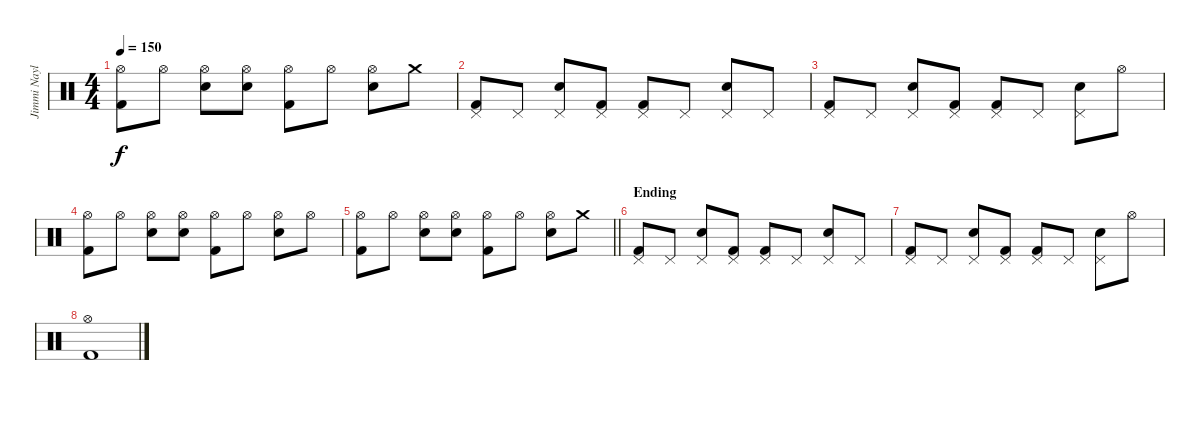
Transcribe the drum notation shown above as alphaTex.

\track ("Jimmi Naylor" "Jimmi Nayl") {instrument percussion}
\staff {score}
\articulation defaults
\ts (4 4)
\tempo 150
\clef neutral
\ks c
("Kick (hit) 2" "Hi-Hat (open)").8{dy f} "Hi-Hat (open)".8 ("Snare (hit) 2" "Hi-Hat (open)").8 ("Snare (hit) 2" "Hi-Hat (open)").8 ("Kick (hit) 2" "Hi-Hat (open)").8 "Hi-Hat (open)".8 ("Snare (hit) 2" "Hi-Hat (open)").8 "Crash medium (hit)".8 |
("Kick (hit) 2" "Pedal Hi-Hat (hit)").8 "Pedal Hi-Hat (hit)".8 ("Electric Snare (hit)" "Pedal Hi-Hat (hit)").8 ("Kick (hit) 2" "Pedal Hi-Hat (hit)").8 ("Kick (hit) 2" "Pedal Hi-Hat (hit)").8 "Pedal Hi-Hat (hit)".8 ("Electric Snare (hit)" "Pedal Hi-Hat (hit)").8 "Pedal Hi-Hat (hit)".8 |
("Kick (hit) 2" "Pedal Hi-Hat (hit)").8 "Pedal Hi-Hat (hit)".8 ("Electric Snare (hit)" "Pedal Hi-Hat (hit)").8 ("Kick (hit) 2" "Pedal Hi-Hat (hit)").8 ("Kick (hit) 2" "Pedal Hi-Hat (hit)").8 "Pedal Hi-Hat (hit)".8 ("Electric Snare (hit)" "Pedal Hi-Hat (hit)").8 "Hi-Hat (open)".8 |
("Kick (hit) 2" "Hi-Hat (open)").8 "Hi-Hat (open)".8 ("Snare (hit) 2" "Hi-Hat (open)").8 ("Snare (hit) 2" "Hi-Hat (open)").8 ("Kick (hit) 2" "Hi-Hat (open)").8 "Hi-Hat (open)".8 ("Snare (hit) 2" "Hi-Hat (open)").8 "Hi-Hat (open)".8 |
\barLineRight lightlight
("Kick (hit) 2" "Hi-Hat (open)").8 "Hi-Hat (open)".8 ("Snare (hit) 2" "Hi-Hat (open)").8 ("Snare (hit) 2" "Hi-Hat (open)").8 ("Kick (hit) 2" "Hi-Hat (open)").8 "Hi-Hat (open)".8 ("Snare (hit) 2" "Hi-Hat (open)").8 "Crash medium (hit)".8 |
\section ("" "Ending")
("Kick (hit) 2" "Pedal Hi-Hat (hit)").8 "Pedal Hi-Hat (hit)".8 ("Electric Snare (hit)" "Pedal Hi-Hat (hit)").8 ("Kick (hit) 2" "Pedal Hi-Hat (hit)").8 ("Kick (hit) 2" "Pedal Hi-Hat (hit)").8 "Pedal Hi-Hat (hit)".8 ("Electric Snare (hit)" "Pedal Hi-Hat (hit)").8 "Pedal Hi-Hat (hit)".8 |
("Kick (hit) 2" "Pedal Hi-Hat (hit)").8 "Pedal Hi-Hat (hit)".8 ("Electric Snare (hit)" "Pedal Hi-Hat (hit)").8 ("Kick (hit) 2" "Pedal Hi-Hat (hit)").8 ("Kick (hit) 2" "Pedal Hi-Hat (hit)").8 "Pedal Hi-Hat (hit)".8 ("Electric Snare (hit)" "Pedal Hi-Hat (hit)").8 "Hi-Hat (open)".8 |
("Kick (hit) 2" "Hi-Hat (open)").1
